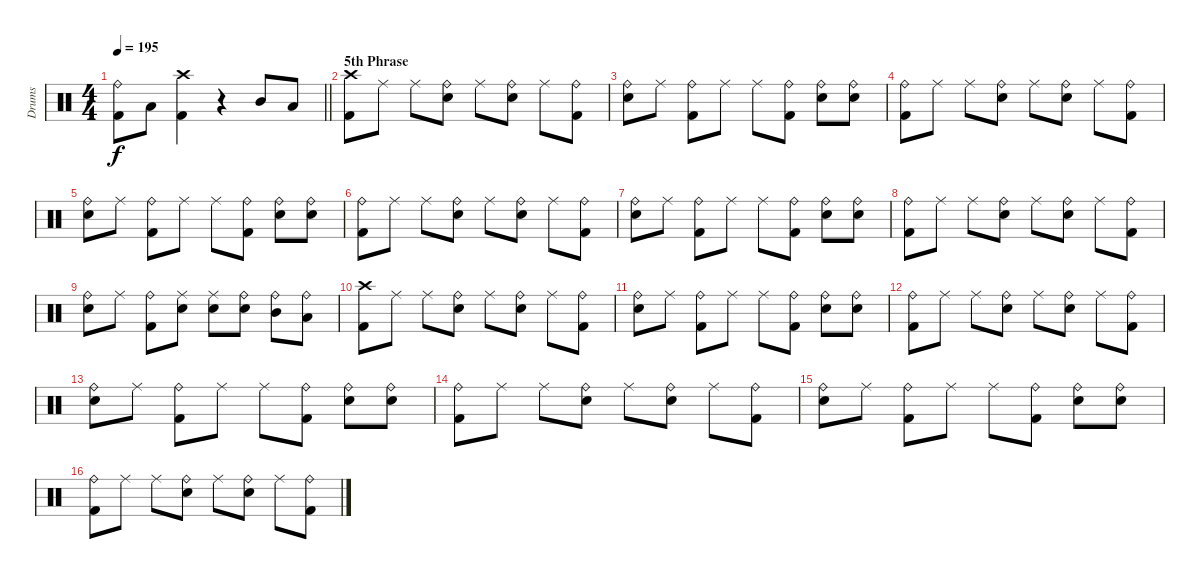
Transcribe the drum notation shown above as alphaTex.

\track ("Drums" "Drums") {instrument percussion}
\staff {score}
\articulation defaults
\ts (4 4)
\tempo 195
\clef neutral
\barLineRight lightlight
\ks c
("Ride (bell)" "Kick (hit) 2").8{dy f} "Low Floor Tom (hit)".8 ("Crash high (hit)" "Kick (hit) 2").4 r.4 "Mid Tom (hit)".8 "Low Floor Tom (hit)".8 |
\section ("" "5th Phrase")
("Crash high (hit)" "Kick (hit) 2").8 "Ride (middle)".8 "Ride (middle)".8 ("Ride (bell)" "Snare (hit) 2").8 "Ride (middle)".8 ("Ride (bell)" "Snare (hit) 2").8 "Ride (middle)".8 ("Ride (bell)" "Kick (hit) 2").8 |
("Ride (bell)" "Snare (hit) 2").8 "Ride (middle)".8 ("Ride (bell)" "Kick (hit) 2").8 "Ride (middle)".8 "Ride (middle)".8 ("Ride (bell)" "Kick (hit) 2").8 ("Ride (bell)" "Snare (hit) 2").8 ("Ride (bell)" "Snare (hit) 2").8 |
("Ride (bell)" "Kick (hit) 2").8 "Ride (middle)".8 "Ride (middle)".8 ("Ride (bell)" "Snare (hit) 2").8 "Ride (middle)".8 ("Ride (bell)" "Snare (hit) 2").8 "Ride (middle)".8 ("Ride (bell)" "Kick (hit) 2").8 |
("Ride (bell)" "Snare (hit) 2").8 "Ride (middle)".8 ("Ride (bell)" "Kick (hit) 2").8 "Ride (middle)".8 "Ride (middle)".8 ("Ride (bell)" "Kick (hit) 2").8 ("Ride (bell)" "Snare (hit) 2").8 ("Ride (bell)" "Snare (hit) 2").8 |
("Ride (bell)" "Kick (hit) 2").8 "Ride (middle)".8 "Ride (middle)".8 ("Ride (bell)" "Snare (hit) 2").8 "Ride (middle)".8 ("Ride (bell)" "Snare (hit) 2").8 "Ride (middle)".8 ("Ride (bell)" "Kick (hit) 2").8 |
("Ride (bell)" "Snare (hit) 2").8 "Ride (middle)".8 ("Ride (bell)" "Kick (hit) 2").8 "Ride (middle)".8 "Ride (middle)".8 ("Ride (bell)" "Kick (hit) 2").8 ("Ride (bell)" "Snare (hit) 2").8 ("Ride (bell)" "Snare (hit) 2").8 |
("Ride (bell)" "Kick (hit) 2").8 "Ride (middle)".8 "Ride (middle)".8 ("Ride (bell)" "Snare (hit) 2").8 "Ride (middle)".8 ("Ride (bell)" "Snare (hit) 2").8 "Ride (middle)".8 ("Ride (bell)" "Kick (hit) 2").8 |
("Ride (bell)" "Snare (hit) 2").8 "Ride (middle)".8 ("Ride (bell)" "Kick (hit) 2").8 ("Ride (middle)" "Snare (hit) 2").8 ("Ride (middle)" "Snare (hit) 2").8 ("Ride (bell)" "Snare (hit) 2").8 ("Ride (bell)" "Mid Tom (hit)").8 ("Ride (bell)" "Low Floor Tom (hit)").8 |
("Crash high (hit)" "Kick (hit) 2").8 "Ride (middle)".8 "Ride (middle)".8 ("Ride (bell)" "Snare (hit) 2").8 "Ride (middle)".8 ("Ride (bell)" "Snare (hit) 2").8 "Ride (middle)".8 ("Ride (bell)" "Kick (hit) 2").8 |
("Ride (bell)" "Snare (hit) 2").8 "Ride (middle)".8 ("Ride (bell)" "Kick (hit) 2").8 "Ride (middle)".8 "Ride (middle)".8 ("Ride (bell)" "Kick (hit) 2").8 ("Ride (bell)" "Snare (hit) 2").8 ("Ride (bell)" "Snare (hit) 2").8 |
("Ride (bell)" "Kick (hit) 2").8 "Ride (middle)".8 "Ride (middle)".8 ("Ride (bell)" "Snare (hit) 2").8 "Ride (middle)".8 ("Ride (bell)" "Snare (hit) 2").8 "Ride (middle)".8 ("Ride (bell)" "Kick (hit) 2").8 |
("Ride (bell)" "Snare (hit) 2").8 "Ride (middle)".8 ("Ride (bell)" "Kick (hit) 2").8 "Ride (middle)".8 "Ride (middle)".8 ("Ride (bell)" "Kick (hit) 2").8 ("Ride (bell)" "Snare (hit) 2").8 ("Ride (bell)" "Snare (hit) 2").8 |
("Ride (bell)" "Kick (hit) 2").8 "Ride (middle)".8 "Ride (middle)".8 ("Ride (bell)" "Snare (hit) 2").8 "Ride (middle)".8 ("Ride (bell)" "Snare (hit) 2").8 "Ride (middle)".8 ("Ride (bell)" "Kick (hit) 2").8 |
("Ride (bell)" "Snare (hit) 2").8 "Ride (middle)".8 ("Ride (bell)" "Kick (hit) 2").8 "Ride (middle)".8 "Ride (middle)".8 ("Ride (bell)" "Kick (hit) 2").8 ("Ride (bell)" "Snare (hit) 2").8 ("Ride (bell)" "Snare (hit) 2").8 |
("Ride (bell)" "Kick (hit) 2").8 "Ride (middle)".8 "Ride (middle)".8 ("Ride (bell)" "Snare (hit) 2").8 "Ride (middle)".8 ("Ride (bell)" "Snare (hit) 2").8 "Ride (middle)".8 ("Ride (bell)" "Kick (hit) 2").8
